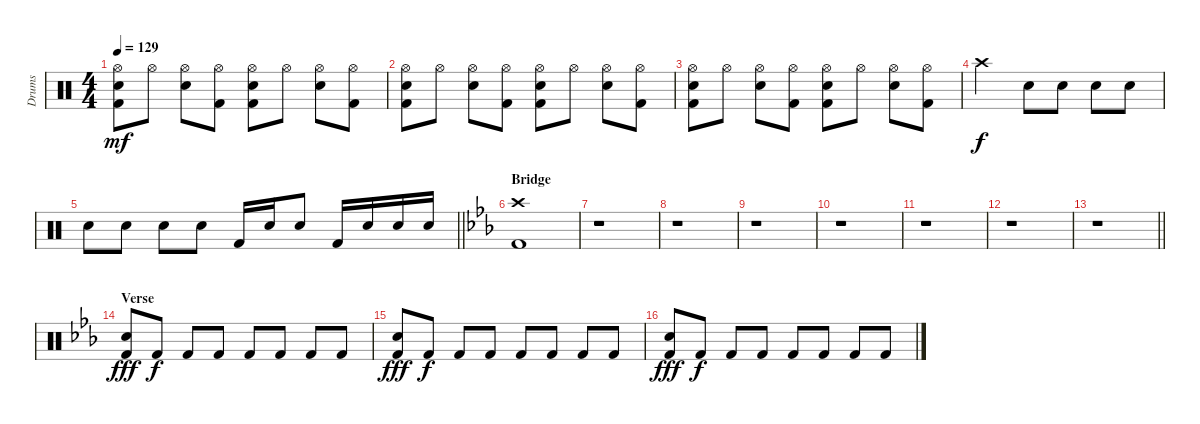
\track ("Drums" "Drums") {instrument percussion}
\staff {score}
\articulation defaults
\ts (4 4)
\tempo 129
\clef neutral
\ks c
("Hi-Hat (open)" "Electric Snare (hit)" "Kick (hit) 2").8{dy mf} "Hi-Hat (open)".8 ("Hi-Hat (open)" "Electric Snare (hit)").8 ("Hi-Hat (open)" "Kick (hit) 2").8 ("Hi-Hat (open)" "Electric Snare (hit)" "Kick (hit) 2").8 "Hi-Hat (open)".8 ("Hi-Hat (open)" "Electric Snare (hit)").8 ("Hi-Hat (open)" "Kick (hit) 2").8 |
("Hi-Hat (open)" "Electric Snare (hit)" "Kick (hit) 2").8 "Hi-Hat (open)".8 ("Hi-Hat (open)" "Electric Snare (hit)").8 ("Hi-Hat (open)" "Kick (hit) 2").8 ("Hi-Hat (open)" "Electric Snare (hit)" "Kick (hit) 2").8 "Hi-Hat (open)".8 ("Hi-Hat (open)" "Electric Snare (hit)").8 ("Hi-Hat (open)" "Kick (hit) 2").8 |
("Hi-Hat (open)" "Electric Snare (hit)" "Kick (hit) 2").8 "Hi-Hat (open)".8 ("Hi-Hat (open)" "Electric Snare (hit)").8 ("Hi-Hat (open)" "Kick (hit) 2").8 ("Hi-Hat (open)" "Electric Snare (hit)" "Kick (hit) 2").8 "Hi-Hat (open)".8 ("Hi-Hat (open)" "Electric Snare (hit)").8 ("Hi-Hat (open)" "Kick (hit) 2").8 |
"Crash high (hit)".2{dy f} "Electric Snare (hit)".8{volume 0} "Electric Snare (hit)".8{volume 13} "Electric Snare (hit)".8 "Electric Snare (hit)".8 |
\barLineRight lightlight "Electric Snare (hit)".8 "Electric Snare (hit)".8 "Electric Snare (hit)".8 "Electric Snare (hit)".8 "Kick (hit) 2".16 "Electric Snare (hit)".16 "Electric Snare (hit)".8 "Kick (hit) 2".16 "Electric Snare (hit)".16 "Electric Snare (hit)".16 "Electric Snare (hit)".16
|
\section ("" "Bridge")
\ks eb
("Crash high (hit)" "Kick (hit) 2").1 |
r.1 |
r.1 |
r.1 |
r.1 |
r.1 |
r.1 |
\barLineRight lightlight
r.1 |
\section ("" "Verse")
("Snare (hit) 2" "Kick (hit) 2").8{dy fff} "Kick (hit) 2".8{dy f} "Kick (hit) 2".8 "Kick (hit) 2".8 "Kick (hit) 2".8 "Kick (hit) 2".8 "Kick (hit) 2".8 "Kick (hit) 2".8 |
("Snare (hit) 2" "Kick (hit) 2").8{dy fff} "Kick (hit) 2".8{dy f} "Kick (hit) 2".8 "Kick (hit) 2".8 "Kick (hit) 2".8 "Kick (hit) 2".8 "Kick (hit) 2".8 "Kick (hit) 2".8 |
("Snare (hit) 2" "Kick (hit) 2").8{dy fff} "Kick (hit) 2".8{dy f} "Kick (hit) 2".8 "Kick (hit) 2".8 "Kick (hit) 2".8 "Kick (hit) 2".8 "Kick (hit) 2".8 "Kick (hit) 2".8
